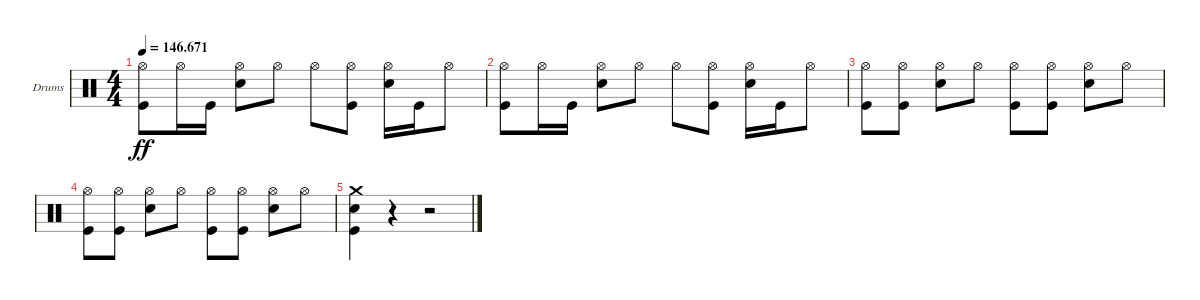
\bracketExtendMode groupsimilarinstruments
\firstSystemTrackNameOrientation horizontal
\otherSystemsTrackNameOrientation horizontal
\track ("Drumkit" "Drums") {instrument percussion}
\staff {score}
\articulation defaults
\ts (4 4)
\tempo
146.671
\accidentals auto
\clef neutral
\ottava regular
\simile none
\ks c
("Hi-Hat (open)" "Kick (hit)").8{dy ff} "Hi-Hat (open)".16 "Kick (hit)".16 ("Hi-Hat (open)" "Snare (hit) 2").8 "Hi-Hat (open)".8 "Hi-Hat (open)".8 ("Hi-Hat (open)" "Kick (hit)").8 ("Hi-Hat (open)" "Snare (hit) 2").16 "Kick (hit)".16 "Hi-Hat (open)".8 |
("Hi-Hat (open)" "Kick (hit)").8 "Hi-Hat (open)".16 "Kick (hit)".16 ("Hi-Hat (open)" "Snare (hit) 2").8 "Hi-Hat (open)".8 "Hi-Hat (open)".8 ("Hi-Hat (open)" "Kick (hit)").8 ("Hi-Hat (open)" "Snare (hit) 2").16 "Kick (hit)".16 "Hi-Hat (open)".8 |
("Hi-Hat (open)" "Kick (hit)").8 ("Hi-Hat (open)" "Kick (hit)").8 ("Hi-Hat (open)" "Snare (hit) 2").8 "Hi-Hat (open)".8 ("Hi-Hat (open)" "Kick (hit)").8 ("Hi-Hat (open)" "Kick (hit)").8 ("Hi-Hat (open)" "Snare (hit) 2").8 "Hi-Hat (open)".8 |
("Hi-Hat (open)" "Kick (hit)").8 ("Hi-Hat (open)" "Kick (hit)").8 ("Hi-Hat (open)" "Snare (hit) 2").8 "Hi-Hat (open)".8 ("Hi-Hat (open)" "Kick (hit)").8 ("Hi-Hat (open)" "Kick (hit)").8 ("Hi-Hat (open)" "Snare (hit) 2").8 "Hi-Hat (open)".8 |
("Crash medium (hit)" "Snare (hit) 2" "Kick (hit)").4 r.4 r.2
